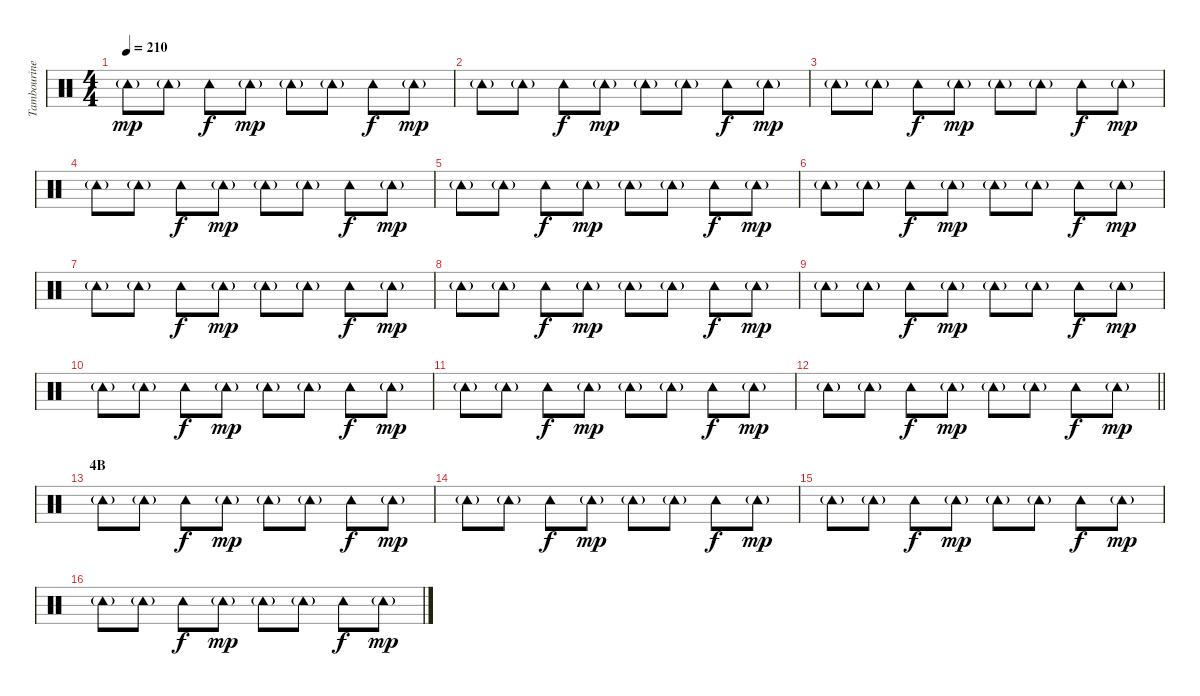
\track ("Tambourine" "Tambourine") {instrument percussion}
\staff {score}
\articulation defaults
\ts (4 4)
\tempo 210
\clef neutral
\ks c "Tambourine (hit)"{g}.8{dy mp} "Tambourine (hit)"{g}.8 "Tambourine (hit)".8{dy f} "Tambourine (hit)"{g}.8{dy mp} "Tambourine (hit)"{g}.8 "Tambourine (hit)"{g}.8 "Tambourine (hit)".8{dy f} "Tambourine (hit)"{g}.8{dy mp}
|
"Tambourine (hit)"{g}.8 "Tambourine (hit)"{g}.8 "Tambourine (hit)".8{dy f} "Tambourine (hit)"{g}.8{dy mp} "Tambourine (hit)"{g}.8 "Tambourine (hit)"{g}.8 "Tambourine (hit)".8{dy f} "Tambourine (hit)"{g}.8{dy mp} |
"Tambourine (hit)"{g}.8 "Tambourine (hit)"{g}.8 "Tambourine (hit)".8{dy f} "Tambourine (hit)"{g}.8{dy mp} "Tambourine (hit)"{g}.8 "Tambourine (hit)"{g}.8 "Tambourine (hit)".8{dy f} "Tambourine (hit)"{g}.8{dy mp} |
"Tambourine (hit)"{g}.8 "Tambourine (hit)"{g}.8 "Tambourine (hit)".8{dy f} "Tambourine (hit)"{g}.8{dy mp} "Tambourine (hit)"{g}.8 "Tambourine (hit)"{g}.8 "Tambourine (hit)".8{dy f} "Tambourine (hit)"{g}.8{dy mp} |
"Tambourine (hit)"{g}.8 "Tambourine (hit)"{g}.8 "Tambourine (hit)".8{dy f} "Tambourine (hit)"{g}.8{dy mp} "Tambourine (hit)"{g}.8 "Tambourine (hit)"{g}.8 "Tambourine (hit)".8{dy f} "Tambourine (hit)"{g}.8{dy mp} |
"Tambourine (hit)"{g}.8 "Tambourine (hit)"{g}.8 "Tambourine (hit)".8{dy f} "Tambourine (hit)"{g}.8{dy mp} "Tambourine (hit)"{g}.8 "Tambourine (hit)"{g}.8 "Tambourine (hit)".8{dy f} "Tambourine (hit)"{g}.8{dy mp} |
"Tambourine (hit)"{g}.8 "Tambourine (hit)"{g}.8 "Tambourine (hit)".8{dy f} "Tambourine (hit)"{g}.8{dy mp} "Tambourine (hit)"{g}.8 "Tambourine (hit)"{g}.8 "Tambourine (hit)".8{dy f} "Tambourine (hit)"{g}.8{dy mp} |
"Tambourine (hit)"{g}.8 "Tambourine (hit)"{g}.8 "Tambourine (hit)".8{dy f} "Tambourine (hit)"{g}.8{dy mp} "Tambourine (hit)"{g}.8 "Tambourine (hit)"{g}.8 "Tambourine (hit)".8{dy f} "Tambourine (hit)"{g}.8{dy mp} |
"Tambourine (hit)"{g}.8 "Tambourine (hit)"{g}.8 "Tambourine (hit)".8{dy f} "Tambourine (hit)"{g}.8{dy mp} "Tambourine (hit)"{g}.8 "Tambourine (hit)"{g}.8 "Tambourine (hit)".8{dy f} "Tambourine (hit)"{g}.8{dy mp} |
"Tambourine (hit)"{g}.8 "Tambourine (hit)"{g}.8 "Tambourine (hit)".8{dy f} "Tambourine (hit)"{g}.8{dy mp} "Tambourine (hit)"{g}.8 "Tambourine (hit)"{g}.8 "Tambourine (hit)".8{dy f} "Tambourine (hit)"{g}.8{dy mp} |
"Tambourine (hit)"{g}.8 "Tambourine (hit)"{g}.8 "Tambourine (hit)".8{dy f} "Tambourine (hit)"{g}.8{dy mp} "Tambourine (hit)"{g}.8 "Tambourine (hit)"{g}.8 "Tambourine (hit)".8{dy f} "Tambourine (hit)"{g}.8{dy mp} |
\barLineRight lightlight "Tambourine (hit)"{g}.8 "Tambourine (hit)"{g}.8 "Tambourine (hit)".8{dy f} "Tambourine (hit)"{g}.8{dy mp} "Tambourine (hit)"{g}.8 "Tambourine (hit)"{g}.8 "Tambourine (hit)".8{dy f} "Tambourine (hit)"{g}.8{dy mp}
|
\section ("" "4B")
"Tambourine (hit)"{g}.8 "Tambourine (hit)"{g}.8 "Tambourine (hit)".8{dy f} "Tambourine (hit)"{g}.8{dy mp} "Tambourine (hit)"{g}.8 "Tambourine (hit)"{g}.8 "Tambourine (hit)".8{dy f} "Tambourine (hit)"{g}.8{dy mp} |
"Tambourine (hit)"{g}.8 "Tambourine (hit)"{g}.8 "Tambourine (hit)".8{dy f} "Tambourine (hit)"{g}.8{dy mp} "Tambourine (hit)"{g}.8 "Tambourine (hit)"{g}.8 "Tambourine (hit)".8{dy f} "Tambourine (hit)"{g}.8{dy mp} |
"Tambourine (hit)"{g}.8 "Tambourine (hit)"{g}.8 "Tambourine (hit)".8{dy f} "Tambourine (hit)"{g}.8{dy mp} "Tambourine (hit)"{g}.8 "Tambourine (hit)"{g}.8 "Tambourine (hit)".8{dy f} "Tambourine (hit)"{g}.8{dy mp} |
"Tambourine (hit)"{g}.8 "Tambourine (hit)"{g}.8 "Tambourine (hit)".8{dy f} "Tambourine (hit)"{g}.8{dy mp} "Tambourine (hit)"{g}.8 "Tambourine (hit)"{g}.8 "Tambourine (hit)".8{dy f} "Tambourine (hit)"{g}.8{dy mp}
